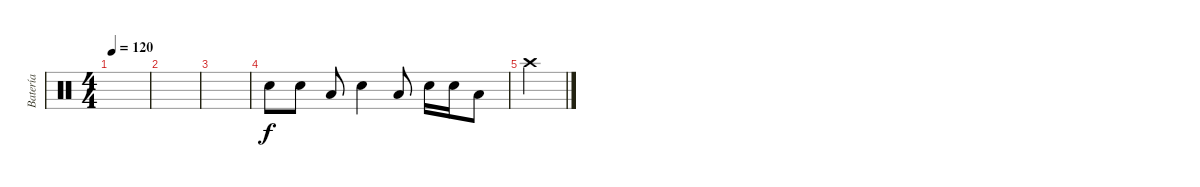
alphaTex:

\track ("Batería" "Batería") {instrument percussion}
\staff {score}
\articulation defaults
\ts (4 4)
\tempo 120
\clef neutral
\ks c
|
|
|
"Snare (hit) 2".8 "Snare (hit) 2".8 "Low Tom (hit)".8 "Snare (hit) 2".4 "Low Tom (hit)".8 "Snare (hit) 2".16 "Snare (hit) 2".16 "Low Tom (hit)".8 |
"Crash high (hit)".4
